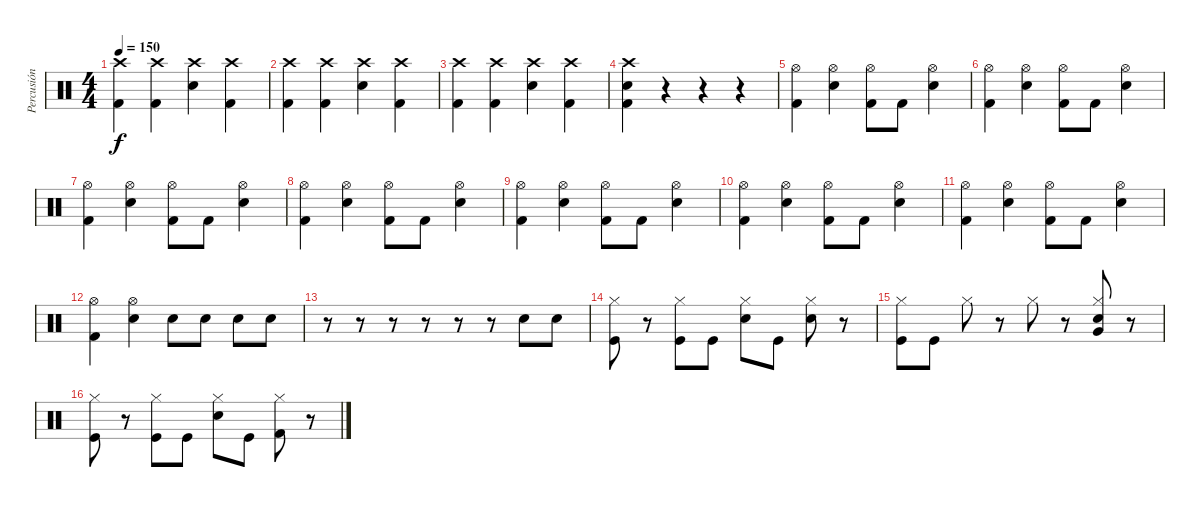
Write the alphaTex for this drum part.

\track ("Percusión" "Percusión") {instrument percussion}
\staff {score}
\articulation defaults
\ts (4 4)
\tempo 150
\clef neutral
\ks c
("Crash high (hit)" "Kick (hit) 2").4{dy f} ("Crash high (hit)" "Kick (hit) 2").4 ("Crash high (hit)" "Electric Snare (hit)").4 ("Crash high (hit)" "Kick (hit) 2").4 |
("Crash high (hit)" "Kick (hit) 2").4 ("Crash high (hit)" "Kick (hit) 2").4 ("Crash high (hit)" "Electric Snare (hit)").4 ("Crash high (hit)" "Kick (hit) 2").4 |
("Crash high (hit)" "Kick (hit) 2").4 ("Crash high (hit)" "Kick (hit) 2").4 ("Crash high (hit)" "Electric Snare (hit)").4 ("Crash high (hit)" "Kick (hit) 2").4 |
("Crash high (hit)" "Electric Snare (hit)" "Kick (hit) 2").4 r.4 r.4 r.4 |
("Hi-Hat (open)" "Kick (hit) 2").4 ("Hi-Hat (open)" "Electric Snare (hit)").4 ("Hi-Hat (open)" "Kick (hit) 2").8 "Kick (hit) 2".8 ("Hi-Hat (open)" "Electric Snare (hit)").4 |
("Hi-Hat (open)" "Kick (hit) 2").4 ("Hi-Hat (open)" "Electric Snare (hit)").4 ("Hi-Hat (open)" "Kick (hit) 2").8 "Kick (hit) 2".8 ("Hi-Hat (open)" "Electric Snare (hit)").4 |
("Hi-Hat (open)" "Kick (hit) 2").4 ("Hi-Hat (open)" "Electric Snare (hit)").4 ("Hi-Hat (open)" "Kick (hit) 2").8 "Kick (hit) 2".8 ("Hi-Hat (open)" "Electric Snare (hit)").4 |
("Hi-Hat (open)" "Kick (hit) 2").4 ("Hi-Hat (open)" "Electric Snare (hit)").4 ("Hi-Hat (open)" "Kick (hit) 2").8 "Kick (hit) 2".8 ("Hi-Hat (open)" "Electric Snare (hit)").4 |
("Hi-Hat (open)" "Kick (hit) 2").4 ("Hi-Hat (open)" "Electric Snare (hit)").4 ("Hi-Hat (open)" "Kick (hit) 2").8 "Kick (hit) 2".8 ("Hi-Hat (open)" "Electric Snare (hit)").4 |
("Hi-Hat (open)" "Kick (hit) 2").4 ("Hi-Hat (open)" "Electric Snare (hit)").4 ("Hi-Hat (open)" "Kick (hit) 2").8 "Kick (hit) 2".8 ("Hi-Hat (open)" "Electric Snare (hit)").4 |
("Hi-Hat (open)" "Kick (hit) 2").4 ("Hi-Hat (open)" "Electric Snare (hit)").4 ("Hi-Hat (open)" "Kick (hit) 2").8 "Kick (hit) 2".8 ("Hi-Hat (open)" "Electric Snare (hit)").4 |
("Hi-Hat (open)" "Kick (hit) 2").4 ("Hi-Hat (open)" "Electric Snare (hit)").4 "Electric Snare (hit)".8 "Electric Snare (hit)".8 "Electric Snare (hit)".8 "Electric Snare (hit)".8 |
r.8 r.8 r.8 r.8 r.8 r.8 "Snare (hit) 2".8 "Snare (hit) 2".8 |
("Hi-Hat (closed)" "Kick (hit)").8 r.8 ("Hi-Hat (closed)" "Kick (hit)").8 "Kick (hit)".8 ("Hi-Hat (closed)" "Snare (hit) 2").8 "Kick (hit)".8 ("Hi-Hat (closed)" "Snare (hit) 2").8 r.8 |
("Hi-Hat (closed)" "Kick (hit)").8 "Kick (hit)".8 "Hi-Hat (closed)".8 r.8 "Hi-Hat (closed)".8 r.8 ("Hi-Hat (closed)" "Very Low Tom (hit)" "Snare (hit) 2").8 r.8 |
("Hi-Hat (closed)" "Kick (hit)").8 r.8 ("Hi-Hat (closed)" "Kick (hit)").8 "Kick (hit)".8 ("Hi-Hat (closed)" "Snare (hit) 2").8 "Kick (hit)".8 ("Hi-Hat (closed)" "Kick (hit) 2").8 r.8
